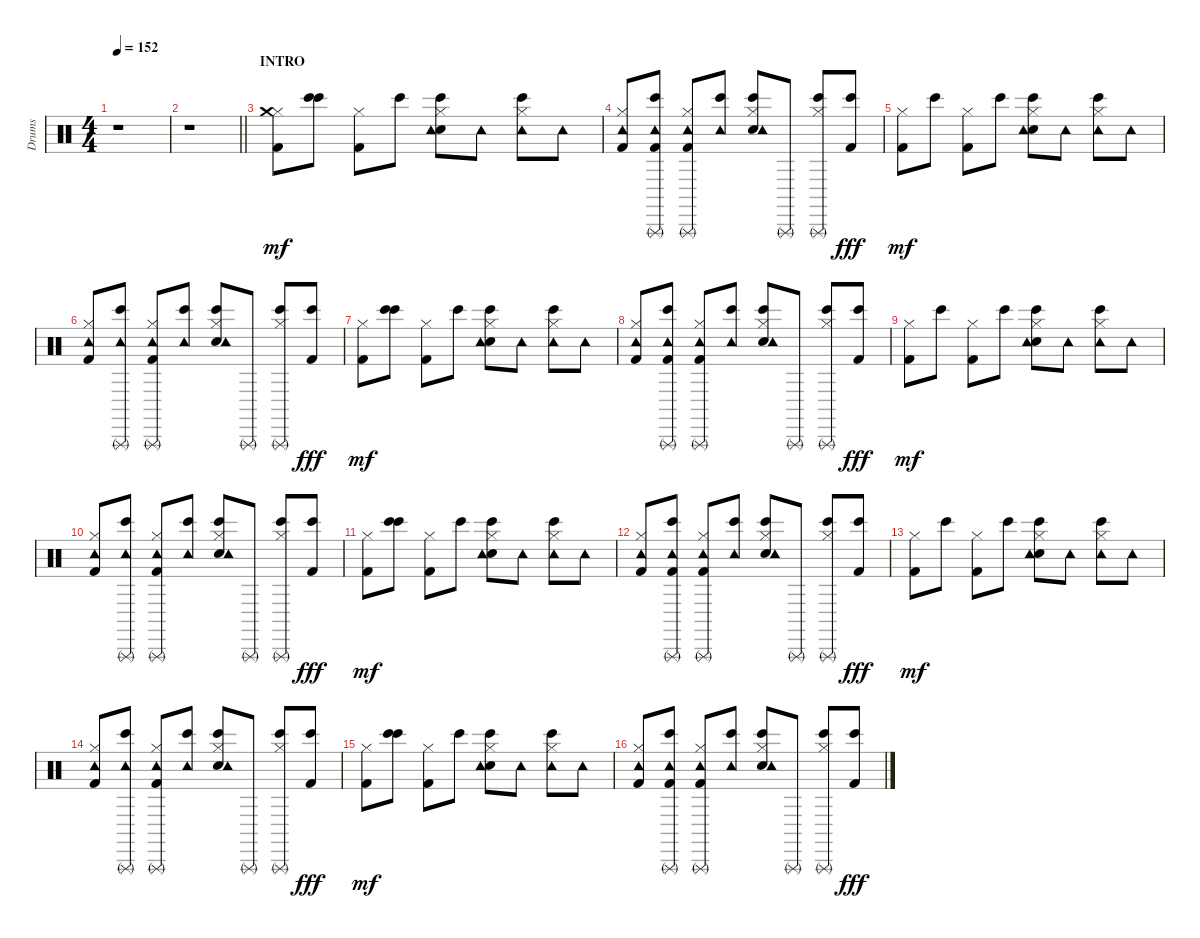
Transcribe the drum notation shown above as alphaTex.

\track ("Drums" "Drums") {instrument percussion}
\staff {score}
\articulation defaults
\ts (4 4)
\tempo 152
\clef neutral
\ks c
r.1{dy mf} |
\barLineRight lightlight
r.1 |
\section ("" "INTRO")
("Kick (hit) 2" "Hi-Hat (closed)" "Crash medium (hit)").8 ("Bongo High (hit)" "Bongo High (hit)").8 ("Kick (hit) 2" "Hi-Hat (closed)").8 "Bongo High (hit)".8 ("Bongo High (hit)" "Electric Snare (hit)" "Hi-Hat (closed)" "Tambourine (hit)").8 "Tambourine (hit)".8 ("Tambourine (hit)" "Bongo High (hit)" "Hi-Hat (closed)").8 "Tambourine (hit)".8 |
("Tambourine (hit)" "Kick (hit) 2" "Hi-Hat (closed)").8 ("Tambourine (hit)" "Bongo High (hit)" "Kick (hit) 2" "Triangle (rnute)").8 ("Kick (hit) 2" "Hi-Hat (closed)" "Triangle (rnute)" "Tambourine (hit)").8 ("Tambourine (hit)" "Bongo High (hit)").8 ("Bongo High (hit)" "Electric Snare (hit)" "Hi-Hat (closed)" "Tambourine (hit)").8 "Triangle (rnute)".8 ("Bongo High (hit)" "Hi-Hat (closed)" "Triangle (rnute)").8 ("Bongo High (hit)" "Kick (hit) 2").8{dy fff} |
("Kick (hit) 2" "Hi-Hat (closed)").8{dy mf} "Bongo High (hit)".8 ("Kick (hit) 2" "Hi-Hat (closed)").8 "Bongo High (hit)".8 ("Bongo High (hit)" "Electric Snare (hit)" "Hi-Hat (closed)" "Tambourine (hit)").8 "Tambourine (hit)".8 ("Tambourine (hit)" "Bongo High (hit)" "Hi-Hat (closed)").8 "Tambourine (hit)".8 |
("Tambourine (hit)" "Kick (hit) 2" "Hi-Hat (closed)").8 ("Tambourine (hit)" "Bongo High (hit)" "Triangle (rnute)").8 ("Kick (hit) 2" "Hi-Hat (closed)" "Triangle (rnute)" "Tambourine (hit)").8 ("Tambourine (hit)" "Bongo High (hit)").8 ("Bongo High (hit)" "Electric Snare (hit)" "Hi-Hat (closed)" "Tambourine (hit)").8 "Triangle (rnute)".8 ("Bongo High (hit)" "Hi-Hat (closed)" "Triangle (rnute)").8 ("Bongo High (hit)" "Kick (hit) 2").8{dy fff} |
("Kick (hit) 2" "Hi-Hat (closed)").8{dy mf} ("Bongo High (hit)" "Bongo High (hit)").8 ("Kick (hit) 2" "Hi-Hat (closed)").8 "Bongo High (hit)".8 ("Bongo High (hit)" "Electric Snare (hit)" "Hi-Hat (closed)" "Tambourine (hit)").8 "Tambourine (hit)".8 ("Tambourine (hit)" "Bongo High (hit)" "Hi-Hat (closed)").8 "Tambourine (hit)".8 |
("Tambourine (hit)" "Kick (hit) 2" "Hi-Hat (closed)").8 ("Tambourine (hit)" "Bongo High (hit)" "Kick (hit) 2" "Triangle (rnute)").8 ("Kick (hit) 2" "Hi-Hat (closed)" "Triangle (rnute)" "Tambourine (hit)").8 ("Tambourine (hit)" "Bongo High (hit)").8 ("Bongo High (hit)" "Electric Snare (hit)" "Hi-Hat (closed)" "Tambourine (hit)").8 "Triangle (rnute)".8 ("Bongo High (hit)" "Hi-Hat (closed)" "Triangle (rnute)").8 ("Bongo High (hit)" "Kick (hit) 2").8{dy fff} |
("Kick (hit) 2" "Hi-Hat (closed)").8{dy mf} "Bongo High (hit)".8 ("Kick (hit) 2" "Hi-Hat (closed)").8 "Bongo High (hit)".8 ("Bongo High (hit)" "Electric Snare (hit)" "Hi-Hat (closed)" "Tambourine (hit)").8 "Tambourine (hit)".8 ("Tambourine (hit)" "Bongo High (hit)" "Hi-Hat (closed)").8 "Tambourine (hit)".8 |
("Tambourine (hit)" "Kick (hit) 2" "Hi-Hat (closed)").8 ("Tambourine (hit)" "Bongo High (hit)" "Triangle (rnute)").8 ("Kick (hit) 2" "Hi-Hat (closed)" "Triangle (rnute)" "Tambourine (hit)").8 ("Tambourine (hit)" "Bongo High (hit)").8 ("Bongo High (hit)" "Electric Snare (hit)" "Hi-Hat (closed)" "Tambourine (hit)").8 "Triangle (rnute)".8 ("Bongo High (hit)" "Hi-Hat (closed)" "Triangle (rnute)").8 ("Bongo High (hit)" "Kick (hit) 2").8{dy fff} |
("Kick (hit) 2" "Hi-Hat (closed)").8{dy mf} ("Bongo High (hit)" "Bongo High (hit)").8 ("Kick (hit) 2" "Hi-Hat (closed)").8 "Bongo High (hit)".8 ("Bongo High (hit)" "Electric Snare (hit)" "Hi-Hat (closed)" "Tambourine (hit)").8 "Tambourine (hit)".8 ("Tambourine (hit)" "Bongo High (hit)" "Hi-Hat (closed)").8 "Tambourine (hit)".8 |
("Tambourine (hit)" "Kick (hit) 2" "Hi-Hat (closed)").8 ("Tambourine (hit)" "Bongo High (hit)" "Kick (hit) 2" "Triangle (rnute)").8 ("Kick (hit) 2" "Hi-Hat (closed)" "Triangle (rnute)" "Tambourine (hit)").8 ("Tambourine (hit)" "Bongo High (hit)").8 ("Bongo High (hit)" "Electric Snare (hit)" "Hi-Hat (closed)" "Tambourine (hit)").8 "Triangle (rnute)".8 ("Bongo High (hit)" "Hi-Hat (closed)" "Triangle (rnute)").8 ("Bongo High (hit)" "Kick (hit) 2").8{dy fff} |
("Kick (hit) 2" "Hi-Hat (closed)").8{dy mf} "Bongo High (hit)".8 ("Kick (hit) 2" "Hi-Hat (closed)").8 "Bongo High (hit)".8 ("Bongo High (hit)" "Electric Snare (hit)" "Hi-Hat (closed)" "Tambourine (hit)").8 "Tambourine (hit)".8 ("Tambourine (hit)" "Bongo High (hit)" "Hi-Hat (closed)").8 "Tambourine (hit)".8 |
("Tambourine (hit)" "Kick (hit) 2" "Hi-Hat (closed)").8 ("Tambourine (hit)" "Bongo High (hit)" "Triangle (rnute)").8 ("Kick (hit) 2" "Hi-Hat (closed)" "Triangle (rnute)" "Tambourine (hit)").8 ("Tambourine (hit)" "Bongo High (hit)").8 ("Bongo High (hit)" "Electric Snare (hit)" "Hi-Hat (closed)" "Tambourine (hit)").8 "Triangle (rnute)".8 ("Bongo High (hit)" "Hi-Hat (closed)" "Triangle (rnute)").8 ("Bongo High (hit)" "Kick (hit) 2").8{dy fff} |
("Kick (hit) 2" "Hi-Hat (closed)").8{dy mf} ("Bongo High (hit)" "Bongo High (hit)").8 ("Kick (hit) 2" "Hi-Hat (closed)").8 "Bongo High (hit)".8 ("Bongo High (hit)" "Electric Snare (hit)" "Hi-Hat (closed)" "Tambourine (hit)").8 "Tambourine (hit)".8 ("Tambourine (hit)" "Bongo High (hit)" "Hi-Hat (closed)").8 "Tambourine (hit)".8 |
("Tambourine (hit)" "Kick (hit) 2" "Hi-Hat (closed)").8 ("Tambourine (hit)" "Bongo High (hit)" "Kick (hit) 2" "Triangle (rnute)").8 ("Kick (hit) 2" "Hi-Hat (closed)" "Triangle (rnute)" "Tambourine (hit)").8 ("Tambourine (hit)" "Bongo High (hit)").8 ("Bongo High (hit)" "Electric Snare (hit)" "Hi-Hat (closed)" "Tambourine (hit)").8 "Triangle (rnute)".8 ("Bongo High (hit)" "Hi-Hat (closed)" "Triangle (rnute)").8 ("Bongo High (hit)" "Kick (hit) 2").8{dy fff}
